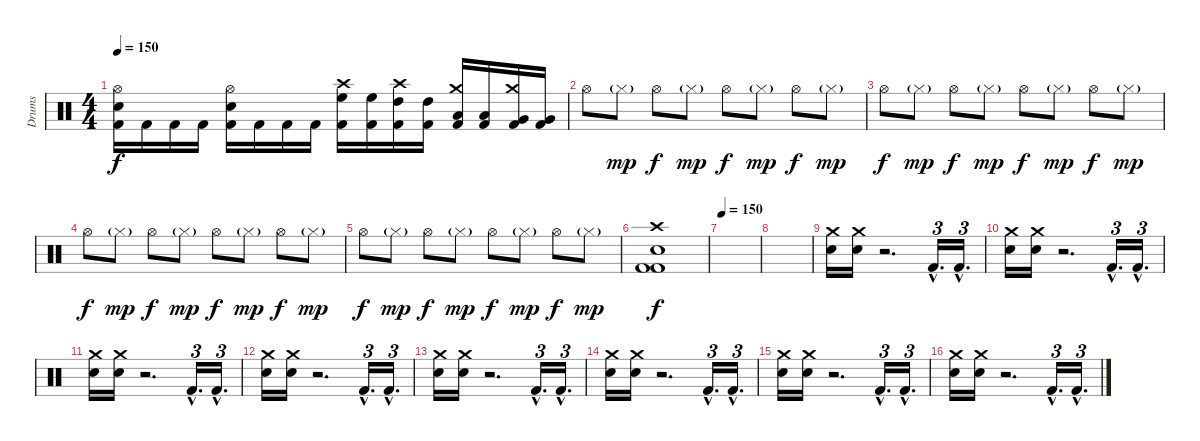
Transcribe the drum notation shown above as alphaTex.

\track ("Drums" "Drums") {instrument percussion}
\staff {score}
\articulation defaults
\ts (4 4)
\tempo 150
\clef neutral
\ks c
("Hi-Hat (open)" "Snare (hit) 2" "Kick (hit) 2").16{dy f} "Kick (hit) 2".16 "Kick (hit) 2".16 "Kick (hit) 2".16 ("Hi-Hat (open)" "Snare (hit) 2" "Kick (hit) 2").16 "Kick (hit) 2".16 "Kick (hit) 2".16 "Kick (hit) 2".16 ("Crash high (hit)" "High Floor Tom (hit)" "Kick (hit) 2").16 ("High Floor Tom (hit)" "Kick (hit) 2").16 ("Crash high (hit)" "High Tom (hit)" "Kick (hit) 2").16 ("High Tom (hit)" "Kick (hit) 2").16 ("Crash medium (hit)" "Low Tom (hit)" "Kick (hit) 2").16 ("Low Tom (hit)" "Kick (hit) 2").16 ("Crash medium (hit)" "Very Low Tom (hit)" "Kick (hit) 2").16 ("Very Low Tom (hit)" "Kick (hit) 2").16 |
"Hi-Hat (open)".8 "Hi-Hat (closed)"{g}.8{dy mp} "Hi-Hat (open)".8{dy f} "Hi-Hat (closed)"{g}.8{dy mp} "Hi-Hat (open)".8{dy f} "Hi-Hat (closed)"{g}.8{dy mp} "Hi-Hat (open)".8{dy f} "Hi-Hat (closed)"{g}.8{dy mp} |
"Hi-Hat (open)".8{dy f} "Hi-Hat (closed)"{g}.8{dy mp} "Hi-Hat (open)".8{dy f} "Hi-Hat (closed)"{g}.8{dy mp} "Hi-Hat (open)".8{dy f} "Hi-Hat (closed)"{g}.8{dy mp} "Hi-Hat (open)".8{dy f} "Hi-Hat (closed)"{g}.8{dy mp} |
"Hi-Hat (open)".8{dy f} "Hi-Hat (closed)"{g}.8{dy mp} "Hi-Hat (open)".8{dy f} "Hi-Hat (closed)"{g}.8{dy mp} "Hi-Hat (open)".8{dy f} "Hi-Hat (closed)"{g}.8{dy mp} "Hi-Hat (open)".8{dy f} "Hi-Hat (closed)"{g}.8{dy mp} |
"Hi-Hat (open)".8{dy f} "Hi-Hat (closed)"{g}.8{dy mp} "Hi-Hat (open)".8{dy f} "Hi-Hat (closed)"{g}.8{dy mp} "Hi-Hat (open)".8{dy f} "Hi-Hat (closed)"{g}.8{dy mp} "Hi-Hat (open)".8{dy f} "Hi-Hat (closed)"{g}.8{dy mp} |
("Crash high (hit)" "Snare (hit) 2" "Kick (hit) 2" "Kick (hit) 2").1{dy f} |
\tempo 150
|
|
("Crash medium (hit)" "Snare (hit) 2").16 ("Crash medium (hit)" "Snare (hit) 2").16 r.2{d} "Kick (hit) 2"{hac}.16{d tu (3 2)} "Kick (hit) 2"{hac}.16{d tu (3 2)} |
("Crash medium (hit)" "Snare (hit) 2").16 ("Crash medium (hit)" "Snare (hit) 2").16 r.2{d} "Kick (hit) 2"{hac}.16{d tu (3 2)} "Kick (hit) 2"{hac}.16{d tu (3 2)} |
("Crash medium (hit)" "Snare (hit) 2").16 ("Crash medium (hit)" "Snare (hit) 2").16 r.2{d} "Kick (hit) 2"{hac}.16{d tu (3 2)} "Kick (hit) 2"{hac}.16{d tu (3 2)} |
("Crash medium (hit)" "Snare (hit) 2").16 ("Crash medium (hit)" "Snare (hit) 2").16 r.2{d} "Kick (hit) 2"{hac}.16{d tu (3 2)} "Kick (hit) 2"{hac}.16{d tu (3 2)} |
("Crash medium (hit)" "Snare (hit) 2").16 ("Crash medium (hit)" "Snare (hit) 2").16 r.2{d} "Kick (hit) 2"{hac}.16{d tu (3 2)} "Kick (hit) 2"{hac}.16{d tu (3 2)} |
("Crash medium (hit)" "Snare (hit) 2").16 ("Crash medium (hit)" "Snare (hit) 2").16 r.2{d} "Kick (hit) 2"{hac}.16{d tu (3 2)} "Kick (hit) 2"{hac}.16{d tu (3 2)} |
("Crash medium (hit)" "Snare (hit) 2").16 ("Crash medium (hit)" "Snare (hit) 2").16 r.2{d} "Kick (hit) 2"{hac}.16{d tu (3 2)} "Kick (hit) 2"{hac}.16{d tu (3 2)} |
("Crash medium (hit)" "Snare (hit) 2").16 ("Crash medium (hit)" "Snare (hit) 2").16 r.2{d} "Kick (hit) 2"{hac}.16{d tu (3 2)} "Kick (hit) 2"{hac}.16{d tu (3 2)}
